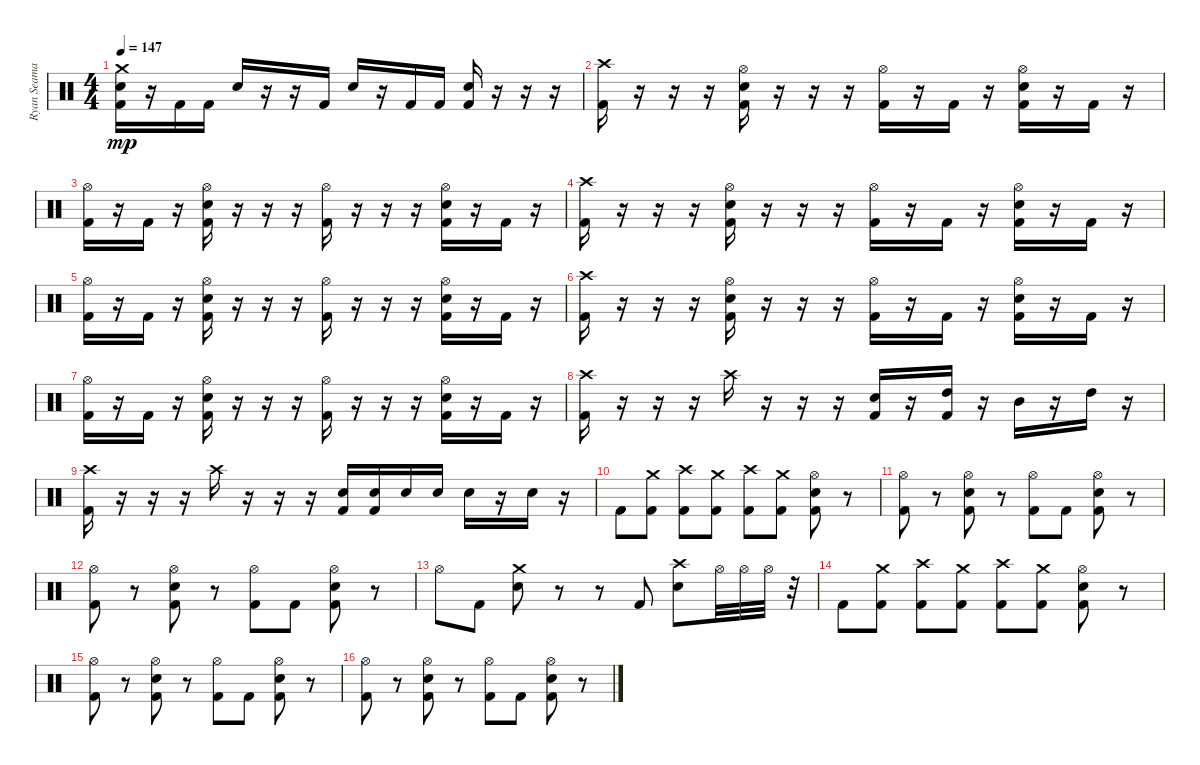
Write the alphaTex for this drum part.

\track ("Ryan Seaman - Drum" "Ryan Seama") {instrument percussion}
\staff {score}
\articulation defaults
\ts (4 4)
\tempo 147
\clef neutral
\ks c
("Crash medium (hit)" "Electric Snare (hit)" "Kick (hit) 2").16{dy mp} r.16 "Kick (hit) 2".16 "Kick (hit) 2".16 "Electric Snare (hit)".16 r.16 r.16 "Kick (hit) 2".16 "Electric Snare (hit)".16 r.16 "Kick (hit) 2".16 "Kick (hit) 2".16 ("Electric Snare (hit)" "Kick (hit) 2").16 r.16 r.16 r.16 |
("Crash high (hit)" "Kick (hit) 2").16 r.16 r.16 r.16 ("Hi-Hat (open)" "Electric Snare (hit)" "Kick (hit) 2").16 r.16 r.16 r.16 ("Hi-Hat (open)" "Kick (hit) 2").16 r.16 "Kick (hit) 2".16 r.16 ("Hi-Hat (open)" "Electric Snare (hit)" "Kick (hit) 2").16 r.16 "Kick (hit) 2".16 r.16 |
("Hi-Hat (open)" "Kick (hit) 2").16 r.16 "Kick (hit) 2".16 r.16 ("Hi-Hat (open)" "Electric Snare (hit)" "Kick (hit) 2").16 r.16 r.16 r.16 ("Hi-Hat (open)" "Kick (hit) 2").16 r.16 r.16 r.16 ("Hi-Hat (open)" "Electric Snare (hit)" "Kick (hit) 2").16 r.16 "Kick (hit) 2".16 r.16 |
("Crash high (hit)" "Kick (hit) 2").16 r.16 r.16 r.16 ("Hi-Hat (open)" "Electric Snare (hit)" "Kick (hit) 2").16 r.16 r.16 r.16 ("Hi-Hat (open)" "Kick (hit) 2").16 r.16 "Kick (hit) 2".16 r.16 ("Hi-Hat (open)" "Electric Snare (hit)" "Kick (hit) 2").16 r.16 "Kick (hit) 2".16 r.16 |
("Hi-Hat (open)" "Kick (hit) 2").16 r.16 "Kick (hit) 2".16 r.16 ("Hi-Hat (open)" "Electric Snare (hit)" "Kick (hit) 2").16 r.16 r.16 r.16 ("Hi-Hat (open)" "Kick (hit) 2").16 r.16 r.16 r.16 ("Hi-Hat (open)" "Electric Snare (hit)" "Kick (hit) 2").16 r.16 "Kick (hit) 2".16 r.16 |
("Crash high (hit)" "Kick (hit) 2").16 r.16 r.16 r.16 ("Hi-Hat (open)" "Electric Snare (hit)" "Kick (hit) 2").16 r.16 r.16 r.16 ("Hi-Hat (open)" "Kick (hit) 2").16 r.16 "Kick (hit) 2".16 r.16 ("Hi-Hat (open)" "Electric Snare (hit)" "Kick (hit) 2").16 r.16 "Kick (hit) 2".16 r.16 |
("Hi-Hat (open)" "Kick (hit) 2").16 r.16 "Kick (hit) 2".16 r.16 ("Hi-Hat (open)" "Electric Snare (hit)" "Kick (hit) 2").16 r.16 r.16 r.16 ("Hi-Hat (open)" "Kick (hit) 2").16 r.16 r.16 r.16 ("Hi-Hat (open)" "Electric Snare (hit)" "Kick (hit) 2").16 r.16 "Kick (hit) 2".16 r.16 |
("Crash high (hit)" "Kick (hit) 2").16 r.16 r.16 r.16 "Crash high (hit)".16 r.16 r.16 r.16 ("Electric Snare (hit)" "Kick (hit) 2").16 r.16 ("High Tom (hit)" "Kick (hit) 2").16 r.16 "Mid Tom (hit)".16 r.16 "High Tom (hit)".16 r.16 |
("Crash high (hit)" "Kick (hit) 2").16 r.16 r.16 r.16 "Crash high (hit)".16 r.16 r.16 r.16 ("Electric Snare (hit)" "Kick (hit) 2").16 ("Electric Snare (hit)" "Kick (hit) 2").16 "Electric Snare (hit)".16 "Electric Snare (hit)".16 "Electric Snare (hit)".16 r.16 "Electric Snare (hit)".16 r.16 |
"Kick (hit) 2".8 ("Crash medium (hit)" "Kick (hit) 2").8 ("Crash high (hit)" "Kick (hit) 2").8 ("Crash medium (hit)" "Kick (hit) 2").8 ("Crash high (hit)" "Kick (hit) 2").8 ("Crash medium (hit)" "Kick (hit) 2").8 ("Hi-Hat (open)" "Electric Snare (hit)" "Kick (hit) 2").8 r.8 |
("Hi-Hat (open)" "Kick (hit) 2").8 r.8 ("Hi-Hat (open)" "Electric Snare (hit)" "Kick (hit) 2").8 r.8 ("Hi-Hat (open)" "Kick (hit) 2").8 "Kick (hit) 2".8 ("Hi-Hat (open)" "Electric Snare (hit)" "Kick (hit) 2").8 r.8 |
("Hi-Hat (open)" "Kick (hit) 2").8 r.8 ("Hi-Hat (open)" "Electric Snare (hit)" "Kick (hit) 2").8 r.8 ("Hi-Hat (open)" "Kick (hit) 2").8 "Kick (hit) 2".8 ("Hi-Hat (open)" "Electric Snare (hit)" "Kick (hit) 2").8 r.8 |
"Hi-Hat (open)".8 "Kick (hit) 2".8 ("Crash medium (hit)" "Electric Snare (hit)").8 r.8 r.8 "Kick (hit) 2".8 ("Crash high (hit)" "Electric Snare (hit)").8 "Hi-Hat (open)".32 "Hi-Hat (open)".32 "Hi-Hat (open)".32 r.32 |
"Kick (hit) 2".8 ("Crash medium (hit)" "Kick (hit) 2").8 ("Crash high (hit)" "Kick (hit) 2").8 ("Crash medium (hit)" "Kick (hit) 2").8 ("Crash high (hit)" "Kick (hit) 2").8 ("Crash medium (hit)" "Kick (hit) 2").8 ("Hi-Hat (open)" "Electric Snare (hit)" "Kick (hit) 2").8 r.8 |
("Hi-Hat (open)" "Kick (hit) 2").8 r.8 ("Hi-Hat (open)" "Electric Snare (hit)" "Kick (hit) 2").8 r.8 ("Hi-Hat (open)" "Kick (hit) 2").8 "Kick (hit) 2".8 ("Hi-Hat (open)" "Electric Snare (hit)" "Kick (hit) 2").8 r.8 |
("Hi-Hat (open)" "Kick (hit) 2").8 r.8 ("Hi-Hat (open)" "Electric Snare (hit)" "Kick (hit) 2").8 r.8 ("Hi-Hat (open)" "Kick (hit) 2").8 "Kick (hit) 2".8 ("Hi-Hat (open)" "Electric Snare (hit)" "Kick (hit) 2").8 r.8
